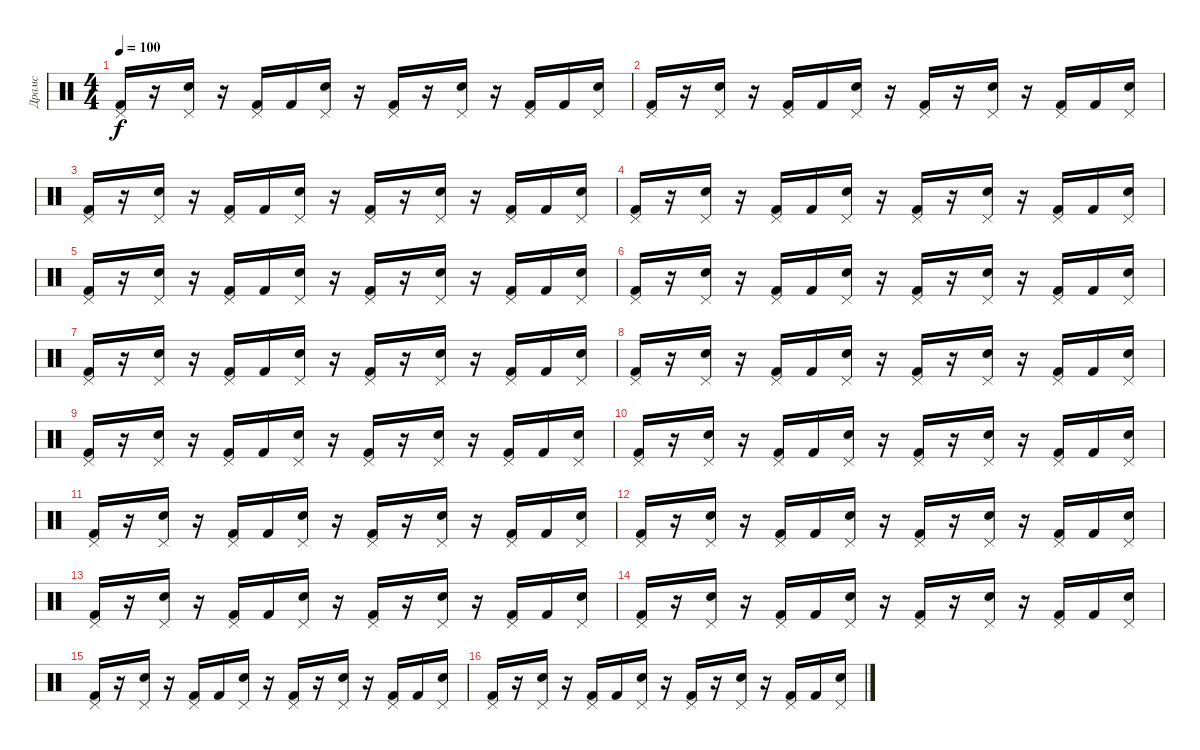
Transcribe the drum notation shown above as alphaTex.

\track ("Драмс" "Драмс") {instrument percussion}
\staff {score}
\articulation defaults
\ts (4 4)
\tempo 100
\clef neutral
\ks c
("Pedal Hi-Hat (hit)" "Kick (hit) 2").16{dy f} r.16 ("Pedal Hi-Hat (hit)" "Snare (hit) 2").16 r.16 ("Pedal Hi-Hat (hit)" "Kick (hit) 2").16 "Kick (hit) 2".16 ("Pedal Hi-Hat (hit)" "Snare (hit) 2").16 r.16 ("Pedal Hi-Hat (hit)" "Kick (hit) 2").16 r.16 ("Pedal Hi-Hat (hit)" "Snare (hit) 2").16 r.16 ("Pedal Hi-Hat (hit)" "Kick (hit) 2").16 "Kick (hit) 2".16 ("Pedal Hi-Hat (hit)" "Snare (hit) 2").16 |
("Pedal Hi-Hat (hit)" "Kick (hit) 2").16 r.16 ("Pedal Hi-Hat (hit)" "Snare (hit) 2").16 r.16 ("Pedal Hi-Hat (hit)" "Kick (hit) 2").16 "Kick (hit) 2".16 ("Pedal Hi-Hat (hit)" "Snare (hit) 2").16 r.16 ("Pedal Hi-Hat (hit)" "Kick (hit) 2").16 r.16 ("Pedal Hi-Hat (hit)" "Snare (hit) 2").16 r.16 ("Pedal Hi-Hat (hit)" "Kick (hit) 2").16 "Kick (hit) 2".16 ("Pedal Hi-Hat (hit)" "Snare (hit) 2").16 |
("Pedal Hi-Hat (hit)" "Kick (hit) 2").16 r.16 ("Pedal Hi-Hat (hit)" "Snare (hit) 2").16 r.16 ("Pedal Hi-Hat (hit)" "Kick (hit) 2").16 "Kick (hit) 2".16 ("Pedal Hi-Hat (hit)" "Snare (hit) 2").16 r.16 ("Pedal Hi-Hat (hit)" "Kick (hit) 2").16 r.16 ("Pedal Hi-Hat (hit)" "Snare (hit) 2").16 r.16 ("Pedal Hi-Hat (hit)" "Kick (hit) 2").16 "Kick (hit) 2".16 ("Pedal Hi-Hat (hit)" "Snare (hit) 2").16 |
("Pedal Hi-Hat (hit)" "Kick (hit) 2").16 r.16 ("Pedal Hi-Hat (hit)" "Snare (hit) 2").16 r.16 ("Pedal Hi-Hat (hit)" "Kick (hit) 2").16 "Kick (hit) 2".16 ("Pedal Hi-Hat (hit)" "Snare (hit) 2").16 r.16 ("Pedal Hi-Hat (hit)" "Kick (hit) 2").16 r.16 ("Pedal Hi-Hat (hit)" "Snare (hit) 2").16 r.16 ("Pedal Hi-Hat (hit)" "Kick (hit) 2").16 "Kick (hit) 2".16 ("Pedal Hi-Hat (hit)" "Snare (hit) 2").16 |
("Pedal Hi-Hat (hit)" "Kick (hit) 2").16 r.16 ("Pedal Hi-Hat (hit)" "Snare (hit) 2").16 r.16 ("Pedal Hi-Hat (hit)" "Kick (hit) 2").16 "Kick (hit) 2".16 ("Pedal Hi-Hat (hit)" "Snare (hit) 2").16 r.16 ("Pedal Hi-Hat (hit)" "Kick (hit) 2").16 r.16 ("Pedal Hi-Hat (hit)" "Snare (hit) 2").16 r.16 ("Pedal Hi-Hat (hit)" "Kick (hit) 2").16 "Kick (hit) 2".16 ("Pedal Hi-Hat (hit)" "Snare (hit) 2").16 |
("Pedal Hi-Hat (hit)" "Kick (hit) 2").16 r.16 ("Pedal Hi-Hat (hit)" "Snare (hit) 2").16 r.16 ("Pedal Hi-Hat (hit)" "Kick (hit) 2").16 "Kick (hit) 2".16 ("Pedal Hi-Hat (hit)" "Snare (hit) 2").16 r.16 ("Pedal Hi-Hat (hit)" "Kick (hit) 2").16 r.16 ("Pedal Hi-Hat (hit)" "Snare (hit) 2").16 r.16 ("Pedal Hi-Hat (hit)" "Kick (hit) 2").16 "Kick (hit) 2".16 ("Pedal Hi-Hat (hit)" "Snare (hit) 2").16 |
("Pedal Hi-Hat (hit)" "Kick (hit) 2").16 r.16 ("Pedal Hi-Hat (hit)" "Snare (hit) 2").16 r.16 ("Pedal Hi-Hat (hit)" "Kick (hit) 2").16 "Kick (hit) 2".16 ("Pedal Hi-Hat (hit)" "Snare (hit) 2").16 r.16 ("Pedal Hi-Hat (hit)" "Kick (hit) 2").16 r.16 ("Pedal Hi-Hat (hit)" "Snare (hit) 2").16 r.16 ("Pedal Hi-Hat (hit)" "Kick (hit) 2").16 "Kick (hit) 2".16 ("Pedal Hi-Hat (hit)" "Snare (hit) 2").16 |
("Pedal Hi-Hat (hit)" "Kick (hit) 2").16 r.16 ("Pedal Hi-Hat (hit)" "Snare (hit) 2").16 r.16 ("Pedal Hi-Hat (hit)" "Kick (hit) 2").16 "Kick (hit) 2".16 ("Pedal Hi-Hat (hit)" "Snare (hit) 2").16 r.16 ("Pedal Hi-Hat (hit)" "Kick (hit) 2").16 r.16 ("Pedal Hi-Hat (hit)" "Snare (hit) 2").16 r.16 ("Pedal Hi-Hat (hit)" "Kick (hit) 2").16 "Kick (hit) 2".16 ("Pedal Hi-Hat (hit)" "Snare (hit) 2").16 |
("Pedal Hi-Hat (hit)" "Kick (hit) 2").16 r.16 ("Pedal Hi-Hat (hit)" "Snare (hit) 2").16 r.16 ("Pedal Hi-Hat (hit)" "Kick (hit) 2").16 "Kick (hit) 2".16 ("Pedal Hi-Hat (hit)" "Snare (hit) 2").16 r.16 ("Pedal Hi-Hat (hit)" "Kick (hit) 2").16 r.16 ("Pedal Hi-Hat (hit)" "Snare (hit) 2").16 r.16 ("Pedal Hi-Hat (hit)" "Kick (hit) 2").16 "Kick (hit) 2".16 ("Pedal Hi-Hat (hit)" "Snare (hit) 2").16 |
("Pedal Hi-Hat (hit)" "Kick (hit) 2").16 r.16 ("Pedal Hi-Hat (hit)" "Snare (hit) 2").16 r.16 ("Pedal Hi-Hat (hit)" "Kick (hit) 2").16 "Kick (hit) 2".16 ("Pedal Hi-Hat (hit)" "Snare (hit) 2").16 r.16 ("Pedal Hi-Hat (hit)" "Kick (hit) 2").16 r.16 ("Pedal Hi-Hat (hit)" "Snare (hit) 2").16 r.16 ("Pedal Hi-Hat (hit)" "Kick (hit) 2").16 "Kick (hit) 2".16 ("Pedal Hi-Hat (hit)" "Snare (hit) 2").16 |
("Pedal Hi-Hat (hit)" "Kick (hit) 2").16 r.16 ("Pedal Hi-Hat (hit)" "Snare (hit) 2").16 r.16 ("Pedal Hi-Hat (hit)" "Kick (hit) 2").16 "Kick (hit) 2".16 ("Pedal Hi-Hat (hit)" "Snare (hit) 2").16 r.16 ("Pedal Hi-Hat (hit)" "Kick (hit) 2").16 r.16 ("Pedal Hi-Hat (hit)" "Snare (hit) 2").16 r.16 ("Pedal Hi-Hat (hit)" "Kick (hit) 2").16 "Kick (hit) 2".16 ("Pedal Hi-Hat (hit)" "Snare (hit) 2").16 |
("Pedal Hi-Hat (hit)" "Kick (hit) 2").16 r.16 ("Pedal Hi-Hat (hit)" "Snare (hit) 2").16 r.16 ("Pedal Hi-Hat (hit)" "Kick (hit) 2").16 "Kick (hit) 2".16 ("Pedal Hi-Hat (hit)" "Snare (hit) 2").16 r.16 ("Pedal Hi-Hat (hit)" "Kick (hit) 2").16 r.16 ("Pedal Hi-Hat (hit)" "Snare (hit) 2").16 r.16 ("Pedal Hi-Hat (hit)" "Kick (hit) 2").16 "Kick (hit) 2".16 ("Pedal Hi-Hat (hit)" "Snare (hit) 2").16 |
("Pedal Hi-Hat (hit)" "Kick (hit) 2").16 r.16 ("Pedal Hi-Hat (hit)" "Snare (hit) 2").16 r.16 ("Pedal Hi-Hat (hit)" "Kick (hit) 2").16 "Kick (hit) 2".16 ("Pedal Hi-Hat (hit)" "Snare (hit) 2").16 r.16 ("Pedal Hi-Hat (hit)" "Kick (hit) 2").16 r.16 ("Pedal Hi-Hat (hit)" "Snare (hit) 2").16 r.16 ("Pedal Hi-Hat (hit)" "Kick (hit) 2").16 "Kick (hit) 2".16 ("Pedal Hi-Hat (hit)" "Snare (hit) 2").16 |
("Pedal Hi-Hat (hit)" "Kick (hit) 2").16 r.16 ("Pedal Hi-Hat (hit)" "Snare (hit) 2").16 r.16 ("Pedal Hi-Hat (hit)" "Kick (hit) 2").16 "Kick (hit) 2".16 ("Pedal Hi-Hat (hit)" "Snare (hit) 2").16 r.16 ("Pedal Hi-Hat (hit)" "Kick (hit) 2").16 r.16 ("Pedal Hi-Hat (hit)" "Snare (hit) 2").16 r.16 ("Pedal Hi-Hat (hit)" "Kick (hit) 2").16 "Kick (hit) 2".16 ("Pedal Hi-Hat (hit)" "Snare (hit) 2").16 |
("Pedal Hi-Hat (hit)" "Kick (hit) 2").16 r.16 ("Pedal Hi-Hat (hit)" "Snare (hit) 2").16 r.16 ("Pedal Hi-Hat (hit)" "Kick (hit) 2").16 "Kick (hit) 2".16 ("Pedal Hi-Hat (hit)" "Snare (hit) 2").16 r.16 ("Pedal Hi-Hat (hit)" "Kick (hit) 2").16 r.16 ("Pedal Hi-Hat (hit)" "Snare (hit) 2").16 r.16 ("Pedal Hi-Hat (hit)" "Kick (hit) 2").16 "Kick (hit) 2".16 ("Pedal Hi-Hat (hit)" "Snare (hit) 2").16 |
("Pedal Hi-Hat (hit)" "Kick (hit) 2").16 r.16 ("Pedal Hi-Hat (hit)" "Snare (hit) 2").16 r.16 ("Pedal Hi-Hat (hit)" "Kick (hit) 2").16 "Kick (hit) 2".16 ("Pedal Hi-Hat (hit)" "Snare (hit) 2").16 r.16 ("Pedal Hi-Hat (hit)" "Kick (hit) 2").16 r.16 ("Pedal Hi-Hat (hit)" "Snare (hit) 2").16 r.16 ("Pedal Hi-Hat (hit)" "Kick (hit) 2").16 "Kick (hit) 2".16 ("Pedal Hi-Hat (hit)" "Snare (hit) 2").16
